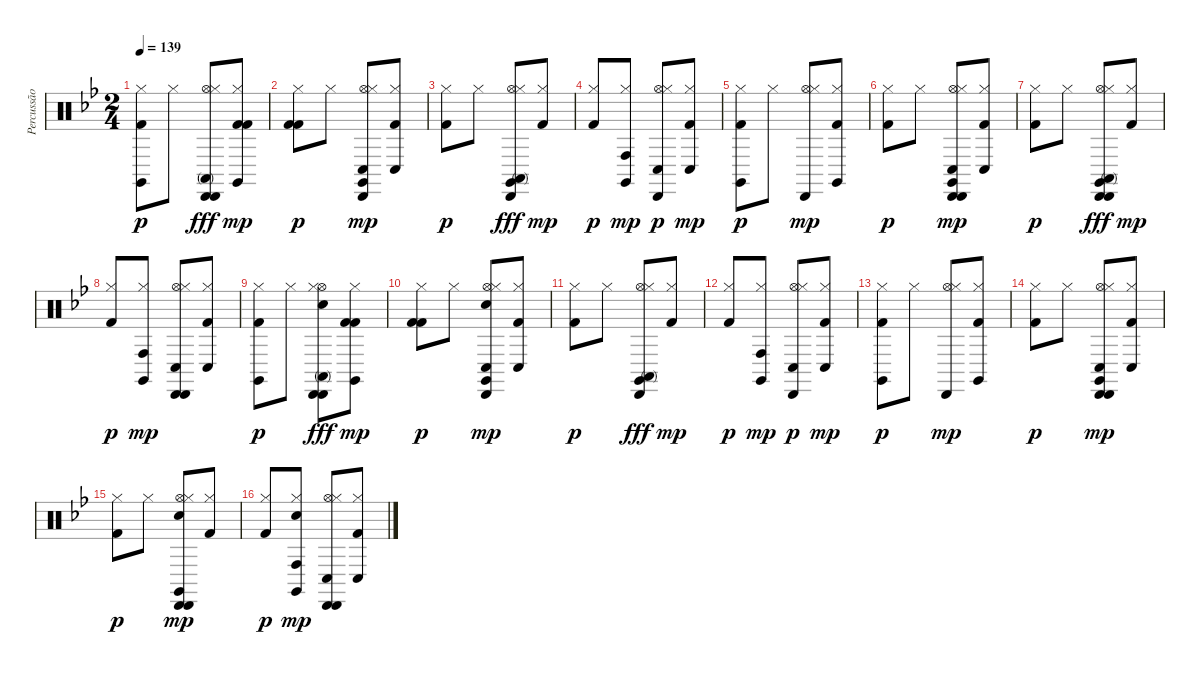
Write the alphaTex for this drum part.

\track ("Percussão" "Percussão") {instrument percussion}
\staff {score}
\articulation defaults
\ts (2 4)
\tempo 139
\clef neutral
\ks bb
("Kick (hit) 2" "Claves (hit)" "Hi-Hat (closed)").8{dy p} "Hi-Hat (closed)".8 ("Hi-Hat (open)" "Hi-Hat (closed)" "Cabasa (hit)" "Cabasa (hit)" "Conga high (mute)").8{dy fff} ("Hi-Hat (closed)" "Claves (hit)" "Kick (hit) 2" "Kick (hit) 2").8{dy mp} |
("Kick (hit) 2" "Kick (hit) 2" "Hi-Hat (closed)").8{dy p} "Hi-Hat (closed)".8 ("Hi-Hat (open)" "Hi-Hat (closed)" "Claves (hit)" "Conga low (hit)" "Cabasa (hit)").8{dy mp} ("Hi-Hat (closed)" "Conga low (hit)" "Kick (hit) 2").8 |
("Kick (hit) 2" "Hi-Hat (closed)").8{dy p} "Hi-Hat (closed)".8 ("Hi-Hat (open)" "Hi-Hat (closed)" "Claves (hit)" "Cabasa (hit)" "Conga high (mute)").8{dy fff} ("Hi-Hat (closed)" "Kick (hit) 2").8{dy mp} |
("Kick (hit) 2" "Hi-Hat (closed)").8{dy p} ("Hi-Hat (closed)" "Claves (hit)" "Conga high (hit)").8{dy mp} ("Hi-Hat (open)" "Hi-Hat (closed)" "Conga low (hit)" "Cabasa (hit)").8{dy p} ("Hi-Hat (closed)" "Conga low (hit)" "Kick (hit) 2").8{dy mp} |
("Kick (hit) 2" "Claves (hit)" "Hi-Hat (closed)").8{dy p} "Hi-Hat (closed)".8 ("Hi-Hat (open)" "Hi-Hat (closed)" "Cabasa (hit)").8{dy mp} ("Hi-Hat (closed)" "Claves (hit)" "Kick (hit) 2").8 |
("Kick (hit) 2" "Hi-Hat (closed)").8{dy p} "Hi-Hat (closed)".8 ("Hi-Hat (open)" "Hi-Hat (closed)" "Claves (hit)" "Conga low (hit)" "Cabasa (hit)" "Cabasa (hit)").8{dy mp} ("Hi-Hat (closed)" "Conga low (hit)" "Kick (hit) 2").8 |
("Kick (hit) 2" "Hi-Hat (closed)").8{dy p} "Hi-Hat (closed)".8 ("Hi-Hat (open)" "Hi-Hat (closed)" "Claves (hit)" "Cabasa (hit)" "Cabasa (hit)" "Conga high (mute)").8{dy fff} ("Hi-Hat (closed)" "Kick (hit) 2").8{dy mp} |
("Kick (hit) 2" "Hi-Hat (closed)").8{dy p} ("Hi-Hat (closed)" "Claves (hit)" "Conga high (hit)").8{dy mp} ("Hi-Hat (open)" "Hi-Hat (closed)" "Conga low (hit)" "Cabasa (hit)" "Cabasa (hit)").8 ("Hi-Hat (closed)" "Conga low (hit)" "Kick (hit) 2").8 |
("Kick (hit) 2" "Claves (hit)" "Hi-Hat (closed)").8{dy p} "Hi-Hat (closed)".8 ("Hi-Hat (open)" "Hi-Hat (closed)" "Electric Snare (hit)" "Cabasa (hit)" "Cabasa (hit)" "Conga high (mute)").8{dy fff} ("Hi-Hat (closed)" "Claves (hit)" "Kick (hit) 2" "Kick (hit) 2").8{dy mp} |
("Kick (hit) 2" "Kick (hit) 2" "Hi-Hat (closed)").8{dy p} "Hi-Hat (closed)".8 ("Hi-Hat (open)" "Hi-Hat (closed)" "Claves (hit)" "Conga low (hit)" "Electric Snare (hit)" "Cabasa (hit)").8{dy mp} ("Hi-Hat (closed)" "Conga low (hit)" "Kick (hit) 2").8 |
("Kick (hit) 2" "Hi-Hat (closed)").8{dy p} "Hi-Hat (closed)".8 ("Hi-Hat (open)" "Hi-Hat (closed)" "Claves (hit)" "Cabasa (hit)" "Conga high (mute)").8{dy fff} ("Hi-Hat (closed)" "Kick (hit) 2").8{dy mp} |
("Kick (hit) 2" "Hi-Hat (closed)").8{dy p} ("Hi-Hat (closed)" "Claves (hit)" "Conga high (hit)").8{dy mp} ("Hi-Hat (open)" "Hi-Hat (closed)" "Conga low (hit)" "Cabasa (hit)").8{dy p} ("Hi-Hat (closed)" "Conga low (hit)" "Kick (hit) 2").8{dy mp} |
("Kick (hit) 2" "Claves (hit)" "Hi-Hat (closed)").8{dy p} "Hi-Hat (closed)".8 ("Hi-Hat (open)" "Hi-Hat (closed)" "Cabasa (hit)").8{dy mp} ("Hi-Hat (closed)" "Claves (hit)" "Kick (hit) 2").8 |
("Kick (hit) 2" "Hi-Hat (closed)").8{dy p} "Hi-Hat (closed)".8 ("Hi-Hat (open)" "Hi-Hat (closed)" "Claves (hit)" "Conga low (hit)" "Cabasa (hit)" "Cabasa (hit)").8{dy mp} ("Hi-Hat (closed)" "Conga low (hit)" "Kick (hit) 2").8 |
("Kick (hit) 2" "Hi-Hat (closed)").8{dy p} "Hi-Hat (closed)".8 ("Hi-Hat (open)" "Hi-Hat (closed)" "Claves (hit)" "Electric Snare (hit)" "Cabasa (hit)" "Cabasa (hit)").8{dy mp} ("Hi-Hat (closed)" "Kick (hit) 2").8 |
("Kick (hit) 2" "Hi-Hat (closed)").8{dy p} ("Hi-Hat (closed)" "Claves (hit)" "Electric Snare (hit)" "Conga high (hit)").8{dy mp} ("Hi-Hat (open)" "Hi-Hat (closed)" "Conga low (hit)" "Cabasa (hit)" "Cabasa (hit)").8 ("Hi-Hat (closed)" "Conga low (hit)" "Kick (hit) 2").8
